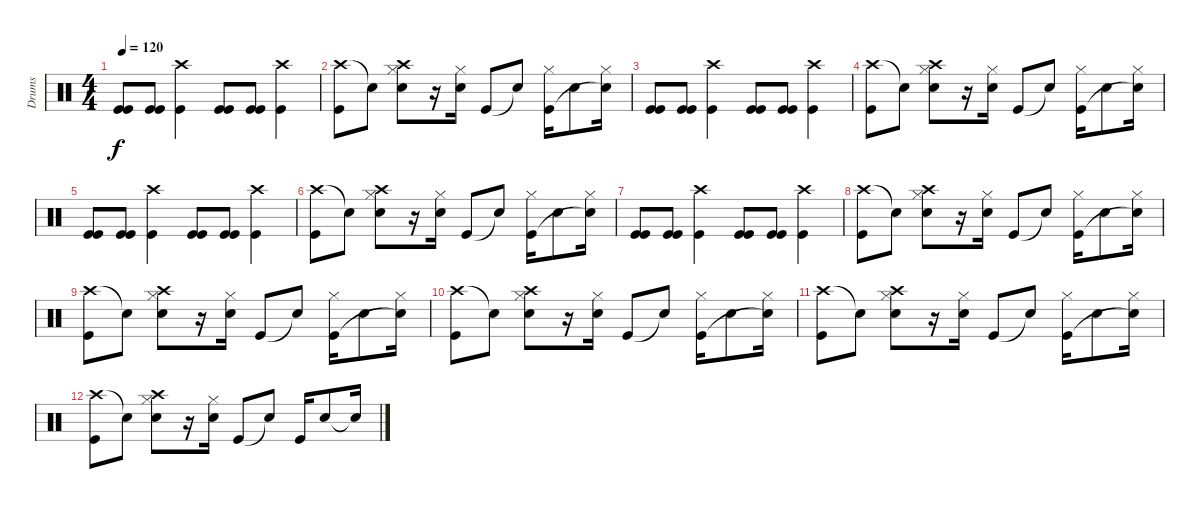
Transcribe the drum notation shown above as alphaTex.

\track ("Drums" "Drums") {instrument percussion}
\staff {score}
\articulation defaults
\ts (4 4)
\tempo 120
\clef neutral
\ks c
("Kick (hit)" "Kick (hit)").8{dy f} ("Kick (hit)" "Kick (hit)").8 ("Crash high (hit)" "Kick (hit)").4 ("Kick (hit)" "Kick (hit)").8 ("Kick (hit)" "Kick (hit)").8 ("Crash high (hit)" "Kick (hit)").4 |
("Crash high (hit)" "Kick (hit)").8 "Snare (hit)"{t}.8 ("Crash high (hit)" "Hi-Hat (closed)" "Snare (hit) 2").8 r.16 ("Hi-Hat (closed)" "Snare (hit) 2").16 "Kick (hit)".8 "Snare (hit)"{t}.8 ("Hi-Hat (closed)" "Kick (hit)").16 "Snare (hit) 2".8 ("Hi-Hat (closed)" "Snare (hit)"{t}).16 |
("Kick (hit)" "Kick (hit)").8 ("Kick (hit)" "Kick (hit)").8 ("Crash high (hit)" "Kick (hit)").4 ("Kick (hit)" "Kick (hit)").8 ("Kick (hit)" "Kick (hit)").8 ("Crash high (hit)" "Kick (hit)").4 |
("Crash high (hit)" "Kick (hit)").8 "Snare (hit)"{t}.8 ("Crash high (hit)" "Hi-Hat (closed)" "Snare (hit) 2").8 r.16 ("Hi-Hat (closed)" "Snare (hit) 2").16 "Kick (hit)".8 "Snare (hit)"{t}.8 ("Hi-Hat (closed)" "Kick (hit)").16 "Snare (hit) 2".8 ("Hi-Hat (closed)" "Snare (hit)"{t}).16 |
("Kick (hit)" "Kick (hit)").8 ("Kick (hit)" "Kick (hit)").8 ("Crash high (hit)" "Kick (hit)").4 ("Kick (hit)" "Kick (hit)").8 ("Kick (hit)" "Kick (hit)").8 ("Crash high (hit)" "Kick (hit)").4 |
("Crash high (hit)" "Kick (hit)").8 "Snare (hit)"{t}.8 ("Crash high (hit)" "Hi-Hat (closed)" "Snare (hit) 2").8 r.16 ("Hi-Hat (closed)" "Snare (hit) 2").16 "Kick (hit)".8 "Snare (hit)"{t}.8 ("Hi-Hat (closed)" "Kick (hit)").16 "Snare (hit) 2".8 ("Hi-Hat (closed)" "Snare (hit)"{t}).16 |
("Kick (hit)" "Kick (hit)").8 ("Kick (hit)" "Kick (hit)").8 ("Crash high (hit)" "Kick (hit)").4 ("Kick (hit)" "Kick (hit)").8 ("Kick (hit)" "Kick (hit)").8 ("Crash high (hit)" "Kick (hit)").4 |
("Crash high (hit)" "Kick (hit)").8 "Snare (hit)"{t}.8 ("Crash high (hit)" "Hi-Hat (closed)" "Snare (hit) 2").8 r.16 ("Hi-Hat (closed)" "Snare (hit) 2").16 "Kick (hit)".8 "Snare (hit)"{t}.8 ("Hi-Hat (closed)" "Kick (hit)").16 "Snare (hit) 2".8 ("Hi-Hat (closed)" "Snare (hit)"{t}).16 |
("Crash high (hit)" "Kick (hit)").8 "Snare (hit)"{t}.8 ("Crash high (hit)" "Hi-Hat (closed)" "Snare (hit) 2").8 r.16 ("Hi-Hat (closed)" "Snare (hit) 2").16 "Kick (hit)".8 "Snare (hit)"{t}.8 ("Hi-Hat (closed)" "Kick (hit)").16 "Snare (hit) 2".8 ("Hi-Hat (closed)" "Snare (hit)"{t}).16 |
("Crash high (hit)" "Kick (hit)").8 "Snare (hit)"{t}.8 ("Crash high (hit)" "Hi-Hat (closed)" "Snare (hit) 2").8 r.16 ("Hi-Hat (closed)" "Snare (hit) 2").16 "Kick (hit)".8 "Snare (hit)"{t}.8 ("Hi-Hat (closed)" "Kick (hit)").16 "Snare (hit) 2".8 ("Hi-Hat (closed)" "Snare (hit)"{t}).16 |
("Crash high (hit)" "Kick (hit)").8 "Snare (hit)"{t}.8 ("Crash high (hit)" "Hi-Hat (closed)" "Snare (hit) 2").8 r.16 ("Hi-Hat (closed)" "Snare (hit) 2").16 "Kick (hit)".8 "Snare (hit)"{t}.8 ("Hi-Hat (closed)" "Kick (hit)").16 "Snare (hit) 2".8 ("Hi-Hat (closed)" "Snare (hit)"{t}).16 |
("Crash high (hit)" "Kick (hit)").8 "Snare (hit)"{t}.8 ("Crash high (hit)" "Hi-Hat (closed)" "Snare (hit) 2").8 r.16 ("Hi-Hat (closed)" "Snare (hit) 2").16 "Kick (hit)".8 "Snare (hit)"{t}.8 "Kick (hit)".16 "Snare (hit) 2".8 "Snare (hit)"{t}.16
